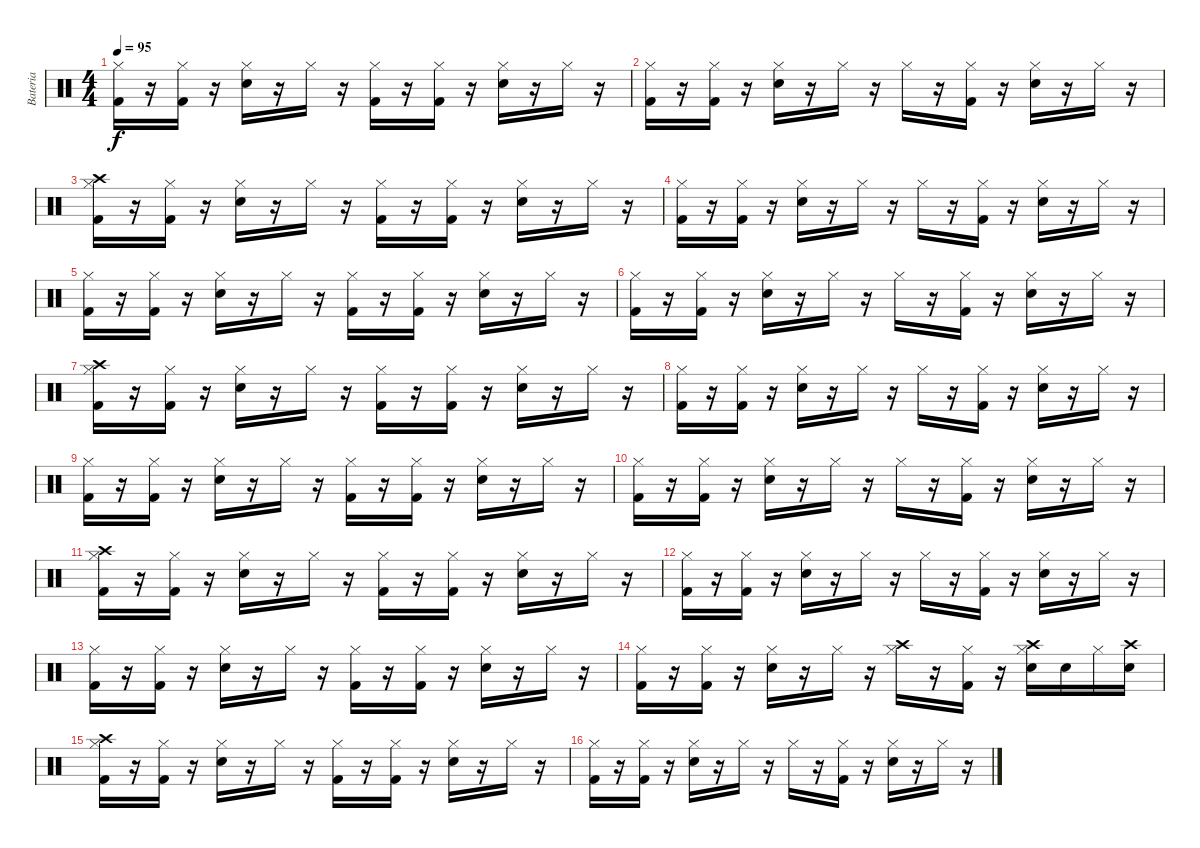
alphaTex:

\track ("Bateria" "Bateria") {instrument percussion}
\staff {score}
\articulation defaults
\ts (4 4)
\tempo 95
\clef neutral
\ks c
("Hi-Hat (closed)" "Kick (hit) 2").16{dy f} r.16 ("Hi-Hat (closed)" "Kick (hit) 2").16 r.16 ("Hi-Hat (closed)" "Snare (hit) 2").16 r.16 "Hi-Hat (closed)".16 r.16 ("Hi-Hat (closed)" "Kick (hit) 2").16 r.16 ("Hi-Hat (closed)" "Kick (hit) 2").16 r.16 ("Hi-Hat (closed)" "Snare (hit) 2").16 r.16 "Hi-Hat (closed)".16 r.16 |
("Hi-Hat (closed)" "Kick (hit) 2").16 r.16 ("Hi-Hat (closed)" "Kick (hit) 2").16 r.16 ("Hi-Hat (closed)" "Snare (hit) 2").16 r.16 "Hi-Hat (closed)".16 r.16 "Hi-Hat (closed)".16 r.16 ("Hi-Hat (closed)" "Kick (hit) 2").16 r.16 ("Hi-Hat (closed)" "Snare (hit) 2").16 r.16 "Hi-Hat (closed)".16 r.16 |
("Crash high (hit)" "Hi-Hat (closed)" "Kick (hit) 2").16 r.16 ("Hi-Hat (closed)" "Kick (hit) 2").16 r.16 ("Hi-Hat (closed)" "Snare (hit) 2").16 r.16 "Hi-Hat (closed)".16 r.16 ("Hi-Hat (closed)" "Kick (hit) 2").16 r.16 ("Hi-Hat (closed)" "Kick (hit) 2").16 r.16 ("Hi-Hat (closed)" "Snare (hit) 2").16 r.16 "Hi-Hat (closed)".16 r.16 |
("Hi-Hat (closed)" "Kick (hit) 2").16 r.16 ("Hi-Hat (closed)" "Kick (hit) 2").16 r.16 ("Hi-Hat (closed)" "Snare (hit) 2").16 r.16 "Hi-Hat (closed)".16 r.16 "Hi-Hat (closed)".16 r.16 ("Hi-Hat (closed)" "Kick (hit) 2").16 r.16 ("Hi-Hat (closed)" "Snare (hit) 2").16 r.16 "Hi-Hat (closed)".16 r.16 |
("Hi-Hat (closed)" "Kick (hit) 2").16 r.16 ("Hi-Hat (closed)" "Kick (hit) 2").16 r.16 ("Hi-Hat (closed)" "Snare (hit) 2").16 r.16 "Hi-Hat (closed)".16 r.16 ("Hi-Hat (closed)" "Kick (hit) 2").16 r.16 ("Hi-Hat (closed)" "Kick (hit) 2").16 r.16 ("Hi-Hat (closed)" "Snare (hit) 2").16 r.16 "Hi-Hat (closed)".16 r.16 |
("Hi-Hat (closed)" "Kick (hit) 2").16 r.16 ("Hi-Hat (closed)" "Kick (hit) 2").16 r.16 ("Hi-Hat (closed)" "Snare (hit) 2").16 r.16 "Hi-Hat (closed)".16 r.16 "Hi-Hat (closed)".16 r.16 ("Hi-Hat (closed)" "Kick (hit) 2").16 r.16 ("Hi-Hat (closed)" "Snare (hit) 2").16 r.16 "Hi-Hat (closed)".16 r.16 |
("Crash high (hit)" "Hi-Hat (closed)" "Kick (hit) 2").16 r.16 ("Hi-Hat (closed)" "Kick (hit) 2").16 r.16 ("Hi-Hat (closed)" "Snare (hit) 2").16 r.16 "Hi-Hat (closed)".16 r.16 ("Hi-Hat (closed)" "Kick (hit) 2").16 r.16 ("Hi-Hat (closed)" "Kick (hit) 2").16 r.16 ("Hi-Hat (closed)" "Snare (hit) 2").16 r.16 "Hi-Hat (closed)".16 r.16 |
("Hi-Hat (closed)" "Kick (hit) 2").16 r.16 ("Hi-Hat (closed)" "Kick (hit) 2").16 r.16 ("Hi-Hat (closed)" "Snare (hit) 2").16 r.16 "Hi-Hat (closed)".16 r.16 "Hi-Hat (closed)".16 r.16 ("Hi-Hat (closed)" "Kick (hit) 2").16 r.16 ("Hi-Hat (closed)" "Snare (hit) 2").16 r.16 "Hi-Hat (closed)".16 r.16 |
("Hi-Hat (closed)" "Kick (hit) 2").16 r.16 ("Hi-Hat (closed)" "Kick (hit) 2").16 r.16 ("Hi-Hat (closed)" "Snare (hit) 2").16 r.16 "Hi-Hat (closed)".16 r.16 ("Hi-Hat (closed)" "Kick (hit) 2").16 r.16 ("Hi-Hat (closed)" "Kick (hit) 2").16 r.16 ("Hi-Hat (closed)" "Snare (hit) 2").16 r.16 "Hi-Hat (closed)".16 r.16 |
("Hi-Hat (closed)" "Kick (hit) 2").16 r.16 ("Hi-Hat (closed)" "Kick (hit) 2").16 r.16 ("Hi-Hat (closed)" "Snare (hit) 2").16 r.16 "Hi-Hat (closed)".16 r.16 "Hi-Hat (closed)".16 r.16 ("Hi-Hat (closed)" "Kick (hit) 2").16 r.16 ("Hi-Hat (closed)" "Snare (hit) 2").16 r.16 "Hi-Hat (closed)".16 r.16 |
("Crash high (hit)" "Hi-Hat (closed)" "Kick (hit) 2").16 r.16 ("Hi-Hat (closed)" "Kick (hit) 2").16 r.16 ("Hi-Hat (closed)" "Snare (hit) 2").16 r.16 "Hi-Hat (closed)".16 r.16 ("Hi-Hat (closed)" "Kick (hit) 2").16 r.16 ("Hi-Hat (closed)" "Kick (hit) 2").16 r.16 ("Hi-Hat (closed)" "Snare (hit) 2").16 r.16 "Hi-Hat (closed)".16 r.16 |
("Hi-Hat (closed)" "Kick (hit) 2").16 r.16 ("Hi-Hat (closed)" "Kick (hit) 2").16 r.16 ("Hi-Hat (closed)" "Snare (hit) 2").16 r.16 "Hi-Hat (closed)".16 r.16 "Hi-Hat (closed)".16 r.16 ("Hi-Hat (closed)" "Kick (hit) 2").16 r.16 ("Hi-Hat (closed)" "Snare (hit) 2").16 r.16 "Hi-Hat (closed)".16 r.16 |
("Hi-Hat (closed)" "Kick (hit) 2").16 r.16 ("Hi-Hat (closed)" "Kick (hit) 2").16 r.16 ("Hi-Hat (closed)" "Snare (hit) 2").16 r.16 "Hi-Hat (closed)".16 r.16 ("Hi-Hat (closed)" "Kick (hit) 2").16 r.16 ("Hi-Hat (closed)" "Kick (hit) 2").16 r.16 ("Hi-Hat (closed)" "Snare (hit) 2").16 r.16 "Hi-Hat (closed)".16 r.16 |
("Hi-Hat (closed)" "Kick (hit) 2").16 r.16 ("Hi-Hat (closed)" "Kick (hit) 2").16 r.16 ("Hi-Hat (closed)" "Snare (hit) 2").16 r.16 "Hi-Hat (closed)".16 r.16 ("Crash high (hit)" "Hi-Hat (closed)").16 r.16 ("Hi-Hat (closed)" "Kick (hit) 2").16 r.16 ("Crash high (hit)" "Hi-Hat (closed)" "Snare (hit) 2").16 "Snare (hit) 2".16 "Hi-Hat (closed)".16 ("Crash high (hit)" "Snare (hit) 2").16 |
("Crash high (hit)" "Hi-Hat (closed)" "Kick (hit) 2").16 r.16 ("Hi-Hat (closed)" "Kick (hit) 2").16 r.16 ("Hi-Hat (closed)" "Snare (hit) 2").16 r.16 "Hi-Hat (closed)".16 r.16 ("Hi-Hat (closed)" "Kick (hit) 2").16 r.16 ("Hi-Hat (closed)" "Kick (hit) 2").16 r.16 ("Hi-Hat (closed)" "Snare (hit) 2").16 r.16 "Hi-Hat (closed)".16 r.16 |
("Hi-Hat (closed)" "Kick (hit) 2").16 r.16 ("Hi-Hat (closed)" "Kick (hit) 2").16 r.16 ("Hi-Hat (closed)" "Snare (hit) 2").16 r.16 "Hi-Hat (closed)".16 r.16 "Hi-Hat (closed)".16 r.16 ("Hi-Hat (closed)" "Kick (hit) 2").16 r.16 ("Hi-Hat (closed)" "Snare (hit) 2").16 r.16 "Hi-Hat (closed)".16 r.16
